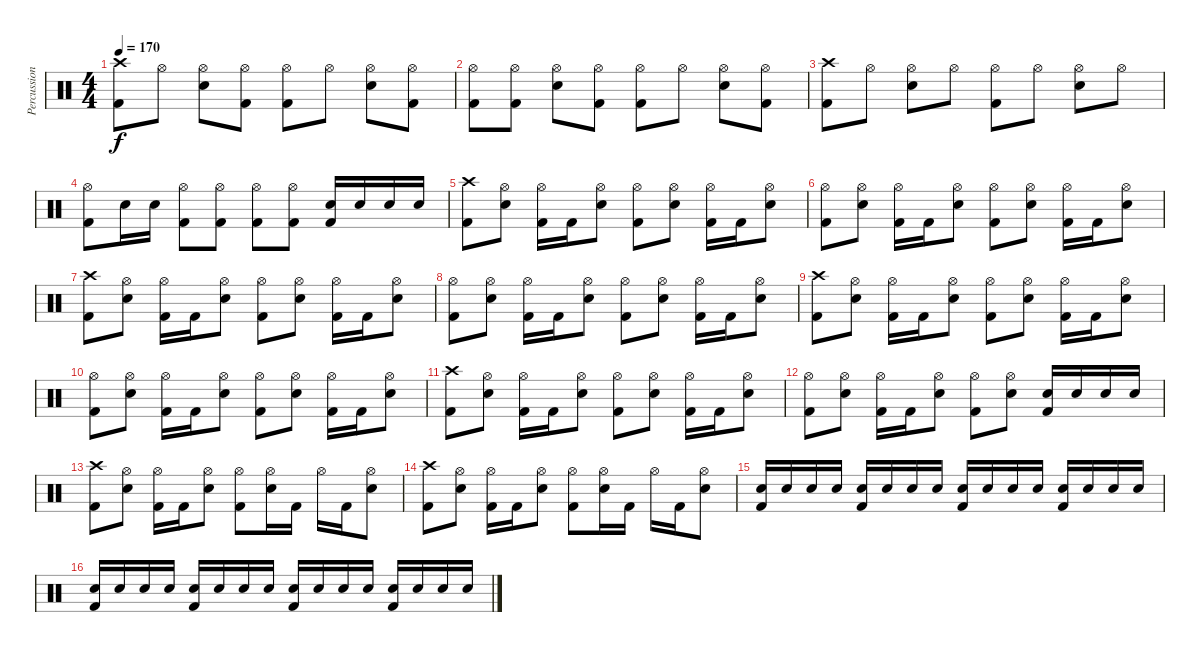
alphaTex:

\track ("Percussion" "Percussion") {instrument percussion}
\staff {score}
\articulation defaults
\ts (4 4)
\tempo 170
\clef neutral
\ks c
("Crash high (hit)" "Kick (hit) 2").8{dy f} "Hi-Hat (open)".8 ("Hi-Hat (open)" "Electric Snare (hit)").8 ("Hi-Hat (open)" "Kick (hit) 2").8 ("Hi-Hat (open)" "Kick (hit) 2").8 "Hi-Hat (open)".8 ("Hi-Hat (open)" "Electric Snare (hit)").8 ("Hi-Hat (open)" "Kick (hit) 2").8 |
("Hi-Hat (open)" "Kick (hit) 2").8 ("Hi-Hat (open)" "Kick (hit) 2").8 ("Hi-Hat (open)" "Electric Snare (hit)").8 ("Hi-Hat (open)" "Kick (hit) 2").8 ("Hi-Hat (open)" "Kick (hit) 2").8 "Hi-Hat (open)".8 ("Hi-Hat (open)" "Electric Snare (hit)").8 ("Hi-Hat (open)" "Kick (hit) 2").8 |
("Crash high (hit)" "Kick (hit) 2").8 "Hi-Hat (open)".8 ("Hi-Hat (open)" "Electric Snare (hit)").8 "Hi-Hat (open)".8 ("Hi-Hat (open)" "Kick (hit) 2").8 "Hi-Hat (open)".8 ("Hi-Hat (open)" "Electric Snare (hit)").8 "Hi-Hat (open)".8 |
("Hi-Hat (open)" "Kick (hit) 2").8 "Electric Snare (hit)".16 "Electric Snare (hit)".16 ("Hi-Hat (open)" "Kick (hit) 2").8 ("Hi-Hat (open)" "Kick (hit) 2").8 ("Hi-Hat (open)" "Kick (hit) 2").8 ("Hi-Hat (open)" "Kick (hit) 2").8 ("Electric Snare (hit)" "Kick (hit) 2").16 "Electric Snare (hit)".16 "Electric Snare (hit)".16 "Electric Snare (hit)".16 |
("Crash high (hit)" "Kick (hit) 2").8 ("Hi-Hat (open)" "Electric Snare (hit)").8 ("Hi-Hat (open)" "Kick (hit) 2").16 "Kick (hit) 2".16 ("Hi-Hat (open)" "Electric Snare (hit)").8 ("Hi-Hat (open)" "Kick (hit) 2").8 ("Hi-Hat (open)" "Electric Snare (hit)").8 ("Hi-Hat (open)" "Kick (hit) 2").16 "Kick (hit) 2".16 ("Hi-Hat (open)" "Electric Snare (hit)").8 |
("Hi-Hat (open)" "Kick (hit) 2").8 ("Hi-Hat (open)" "Electric Snare (hit)").8 ("Hi-Hat (open)" "Kick (hit) 2").16 "Kick (hit) 2".16 ("Hi-Hat (open)" "Electric Snare (hit)").8 ("Hi-Hat (open)" "Kick (hit) 2").8 ("Hi-Hat (open)" "Electric Snare (hit)").8 ("Hi-Hat (open)" "Kick (hit) 2").16 "Kick (hit) 2".16 ("Hi-Hat (open)" "Electric Snare (hit)").8 |
("Crash high (hit)" "Kick (hit) 2").8 ("Hi-Hat (open)" "Electric Snare (hit)").8 ("Hi-Hat (open)" "Kick (hit) 2").16 "Kick (hit) 2".16 ("Hi-Hat (open)" "Electric Snare (hit)").8 ("Hi-Hat (open)" "Kick (hit) 2").8 ("Hi-Hat (open)" "Electric Snare (hit)").8 ("Hi-Hat (open)" "Kick (hit) 2").16 "Kick (hit) 2".16 ("Hi-Hat (open)" "Electric Snare (hit)").8 |
("Hi-Hat (open)" "Kick (hit) 2").8 ("Hi-Hat (open)" "Electric Snare (hit)").8 ("Hi-Hat (open)" "Kick (hit) 2").16 "Kick (hit) 2".16 ("Hi-Hat (open)" "Electric Snare (hit)").8 ("Hi-Hat (open)" "Kick (hit) 2").8 ("Hi-Hat (open)" "Electric Snare (hit)").8 ("Hi-Hat (open)" "Kick (hit) 2").16 "Kick (hit) 2".16 ("Hi-Hat (open)" "Electric Snare (hit)").8 |
("Crash high (hit)" "Kick (hit) 2").8 ("Hi-Hat (open)" "Electric Snare (hit)").8 ("Hi-Hat (open)" "Kick (hit) 2").16 "Kick (hit) 2".16 ("Hi-Hat (open)" "Electric Snare (hit)").8 ("Hi-Hat (open)" "Kick (hit) 2").8 ("Hi-Hat (open)" "Electric Snare (hit)").8 ("Hi-Hat (open)" "Kick (hit) 2").16 "Kick (hit) 2".16 ("Hi-Hat (open)" "Electric Snare (hit)").8 |
("Hi-Hat (open)" "Kick (hit) 2").8 ("Hi-Hat (open)" "Electric Snare (hit)").8 ("Hi-Hat (open)" "Kick (hit) 2").16 "Kick (hit) 2".16 ("Hi-Hat (open)" "Electric Snare (hit)").8 ("Hi-Hat (open)" "Kick (hit) 2").8 ("Hi-Hat (open)" "Electric Snare (hit)").8 ("Hi-Hat (open)" "Kick (hit) 2").16 "Kick (hit) 2".16 ("Hi-Hat (open)" "Electric Snare (hit)").8 |
("Crash high (hit)" "Kick (hit) 2").8 ("Hi-Hat (open)" "Electric Snare (hit)").8 ("Hi-Hat (open)" "Kick (hit) 2").16 "Kick (hit) 2".16 ("Hi-Hat (open)" "Electric Snare (hit)").8 ("Hi-Hat (open)" "Kick (hit) 2").8 ("Hi-Hat (open)" "Electric Snare (hit)").8 ("Hi-Hat (open)" "Kick (hit) 2").16 "Kick (hit) 2".16 ("Hi-Hat (open)" "Electric Snare (hit)").8 |
("Hi-Hat (open)" "Kick (hit) 2").8 ("Hi-Hat (open)" "Electric Snare (hit)").8 ("Hi-Hat (open)" "Kick (hit) 2").16 "Kick (hit) 2".16 ("Hi-Hat (open)" "Electric Snare (hit)").8 ("Hi-Hat (open)" "Kick (hit) 2").8 ("Hi-Hat (open)" "Electric Snare (hit)").8 ("Electric Snare (hit)" "Kick (hit) 2").16 "Electric Snare (hit)".16 "Electric Snare (hit)".16 "Electric Snare (hit)".16 |
("Crash high (hit)" "Kick (hit) 2").8 ("Hi-Hat (open)" "Electric Snare (hit)").8 ("Hi-Hat (open)" "Kick (hit) 2").16 "Kick (hit) 2".16 ("Hi-Hat (open)" "Electric Snare (hit)").8 ("Hi-Hat (open)" "Kick (hit) 2").8 ("Hi-Hat (open)" "Electric Snare (hit)").16 "Kick (hit) 2".16 "Hi-Hat (open)".16 "Kick (hit) 2".16 ("Hi-Hat (open)" "Electric Snare (hit)").8 |
("Crash high (hit)" "Kick (hit) 2").8 ("Hi-Hat (open)" "Electric Snare (hit)").8 ("Hi-Hat (open)" "Kick (hit) 2").16 "Kick (hit) 2".16 ("Hi-Hat (open)" "Electric Snare (hit)").8 ("Hi-Hat (open)" "Kick (hit) 2").8 ("Hi-Hat (open)" "Electric Snare (hit)").16 "Kick (hit) 2".16 "Hi-Hat (open)".16 "Kick (hit) 2".16 ("Hi-Hat (open)" "Electric Snare (hit)").8 |
("Electric Snare (hit)" "Kick (hit) 2").16 "Electric Snare (hit)".16 "Electric Snare (hit)".16 "Electric Snare (hit)".16 ("Electric Snare (hit)" "Kick (hit) 2").16 "Electric Snare (hit)".16 "Electric Snare (hit)".16 "Electric Snare (hit)".16 ("Electric Snare (hit)" "Kick (hit) 2").16 "Electric Snare (hit)".16 "Electric Snare (hit)".16 "Electric Snare (hit)".16 ("Electric Snare (hit)" "Kick (hit) 2").16 "Electric Snare (hit)".16 "Electric Snare (hit)".16 "Electric Snare (hit)".16 |
("Electric Snare (hit)" "Kick (hit) 2").16 "Electric Snare (hit)".16 "Electric Snare (hit)".16 "Electric Snare (hit)".16 ("Electric Snare (hit)" "Kick (hit) 2").16 "Electric Snare (hit)".16 "Electric Snare (hit)".16 "Electric Snare (hit)".16 ("Electric Snare (hit)" "Kick (hit) 2").16 "Electric Snare (hit)".16 "Electric Snare (hit)".16 "Electric Snare (hit)".16 ("Electric Snare (hit)" "Kick (hit) 2").16 "Electric Snare (hit)".16 "Electric Snare (hit)".16 "Electric Snare (hit)".16
